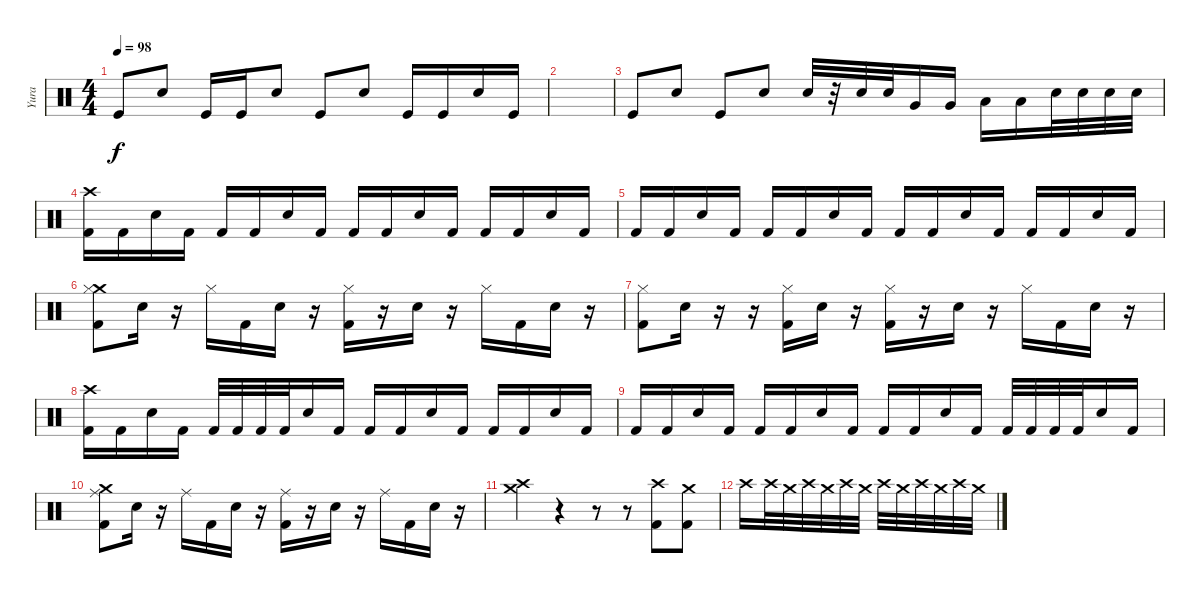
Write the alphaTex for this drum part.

\track ("Yura" "Yura") {instrument percussion}
\staff {score}
\articulation defaults
\ts (4 4)
\tempo 98
\clef neutral
\ks c "Kick (hit)".8{dy f} "Snare (hit) 2".8 "Kick (hit)".16 "Kick (hit)".16 "Snare (hit) 2".8 "Kick (hit)".8 "Snare (hit) 2".8 "Kick (hit)".16 "Kick (hit)".16 "Snare (hit) 2".16 "Kick (hit)".16
|
|
"Kick (hit)".8 "Snare (hit) 2".8 "Kick (hit)".8 "Snare (hit) 2".8 "Electric Snare (hit)".32 r.32 "Electric Snare (hit)".32 "Electric Snare (hit)".32 "Very Low Tom (hit)".16 "Very Low Tom (hit)".16 "Low Floor Tom (hit)".16 "Low Floor Tom (hit)".16 "Electric Snare (hit)".32 "Electric Snare (hit)".32 "Electric Snare (hit)".32 "Electric Snare (hit)".32 |
("Crash high (hit)" "Kick (hit) 2").16 "Kick (hit) 2".16 "Electric Snare (hit)".16 "Kick (hit) 2".16 "Kick (hit) 2".16 "Kick (hit) 2".16 "Electric Snare (hit)".16 "Kick (hit) 2".16 "Kick (hit) 2".16 "Kick (hit) 2".16 "Electric Snare (hit)".16 "Kick (hit) 2".16 "Kick (hit) 2".16 "Kick (hit) 2".16 "Electric Snare (hit)".16 "Kick (hit) 2".16 |
"Kick (hit) 2".16 "Kick (hit) 2".16 "Electric Snare (hit)".16 "Kick (hit) 2".16 "Kick (hit) 2".16 "Kick (hit) 2".16 "Electric Snare (hit)".16 "Kick (hit) 2".16 "Kick (hit) 2".16 "Kick (hit) 2".16 "Electric Snare (hit)".16 "Kick (hit) 2".16 "Kick (hit) 2".16 "Kick (hit) 2".16 "Electric Snare (hit)".16 "Kick (hit) 2".16 |
("Crash medium (hit)" "Hi-Hat (closed)" "Kick (hit) 2").8 "Electric Snare (hit)".16 r.16 "Hi-Hat (closed)".16 "Kick (hit) 2".16 "Electric Snare (hit)".16 r.16 ("Hi-Hat (closed)" "Kick (hit) 2").16 r.16 "Electric Snare (hit)".16 r.16 "Hi-Hat (closed)".16 "Kick (hit) 2".16 "Electric Snare (hit)".16 r.16 |
("Hi-Hat (closed)" "Kick (hit) 2").8 "Electric Snare (hit)".16 r.16 r.16 ("Hi-Hat (closed)" "Kick (hit) 2").16 "Electric Snare (hit)".16 r.16 ("Hi-Hat (closed)" "Kick (hit) 2").16 r.16 "Electric Snare (hit)".16 r.16 "Hi-Hat (closed)".16 "Kick (hit) 2".16 "Electric Snare (hit)".16 r.16 |
("Crash high (hit)" "Kick (hit) 2").16 "Kick (hit) 2".16 "Electric Snare (hit)".16 "Kick (hit) 2".16 "Kick (hit) 2".32 "Kick (hit) 2".32 "Kick (hit) 2".32 "Kick (hit) 2".32 "Electric Snare (hit)".16 "Kick (hit) 2".16 "Kick (hit) 2".16 "Kick (hit) 2".16 "Electric Snare (hit)".16 "Kick (hit) 2".16 "Kick (hit) 2".16 "Kick (hit) 2".16 "Electric Snare (hit)".16 "Kick (hit) 2".16 |
"Kick (hit) 2".16 "Kick (hit) 2".16 "Electric Snare (hit)".16 "Kick (hit) 2".16 "Kick (hit) 2".16 "Kick (hit) 2".16 "Electric Snare (hit)".16 "Kick (hit) 2".16 "Kick (hit) 2".16 "Kick (hit) 2".16 "Electric Snare (hit)".16 "Kick (hit) 2".16 "Kick (hit) 2".32 "Kick (hit) 2".32 "Kick (hit) 2".32 "Kick (hit) 2".32 "Electric Snare (hit)".16 "Kick (hit) 2".16 |
("Crash medium (hit)" "Ride (middle)" "Kick (hit) 2").8 "Electric Snare (hit)".16 r.16 "Ride (middle)".16 "Kick (hit) 2".16 "Electric Snare (hit)".16 r.16 ("Ride (middle)" "Kick (hit) 2").16 r.16 "Electric Snare (hit)".16 r.16 "Ride (middle)".16 "Kick (hit) 2".16 "Electric Snare (hit)".16 r.16 |
("Crash high (hit)" "Crash medium (hit)").4 r.4 r.8 r.8 ("Crash high (hit)" "Kick (hit) 2").8 ("Crash medium (hit)" "Kick (hit) 2").8 |
"Crash high (hit)".16 "Crash high (hit)".32 "Crash medium (hit)".32 "Crash high (hit)".32 "Crash medium (hit)".32 "Crash high (hit)".32 "Crash medium (hit)".32 "Crash high (hit)".32 "Crash medium (hit)".32 "Crash high (hit)".32 "Crash medium (hit)".32 "Crash high (hit)".32 "Crash medium (hit)".32
